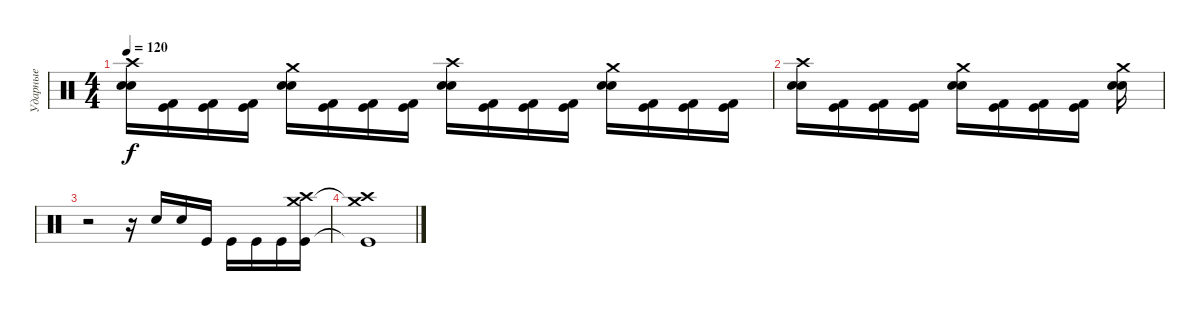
\track ("Ударные" "Ударные") {instrument percussion}
\staff {score}
\articulation defaults
\ts (4 4)
\tempo 120
\clef neutral
\ks c
("Crash high (hit)" "Snare (hit) 2" "Electric Snare (hit)").16{dy f} ("Kick (hit)" "Kick (hit) 2").16 ("Kick (hit)" "Kick (hit) 2").16 ("Kick (hit)" "Kick (hit) 2").16 ("Crash medium (hit)" "Snare (hit) 2" "Electric Snare (hit)").16 ("Kick (hit)" "Kick (hit) 2").16 ("Kick (hit)" "Kick (hit) 2").16 ("Kick (hit)" "Kick (hit) 2").16 ("Crash high (hit)" "Snare (hit) 2" "Electric Snare (hit)").16 ("Kick (hit)" "Kick (hit) 2").16 ("Kick (hit)" "Kick (hit) 2").16 ("Kick (hit)" "Kick (hit) 2").16 ("Crash medium (hit)" "Snare (hit) 2" "Electric Snare (hit)").16 ("Kick (hit)" "Kick (hit) 2").16 ("Kick (hit)" "Kick (hit) 2").16 ("Kick (hit)" "Kick (hit) 2").16 |
("Crash high (hit)" "Snare (hit) 2" "Electric Snare (hit)").16 ("Kick (hit)" "Kick (hit) 2").16 ("Kick (hit)" "Kick (hit) 2").16 ("Kick (hit)" "Kick (hit) 2").16 ("Crash medium (hit)" "Snare (hit) 2" "Electric Snare (hit)").16 ("Kick (hit)" "Kick (hit) 2").16 ("Kick (hit)" "Kick (hit) 2").16 ("Kick (hit)" "Kick (hit) 2").16 ("Crash medium (hit)" "Snare (hit) 2" "Electric Snare (hit)").16 |
r.2 r.16 "Snare (hit) 2".16 "Snare (hit) 2".16 "Kick (hit)".16 "Kick (hit)".16 "Kick (hit)".16 "Kick (hit)".16 ("Crash medium (hit)" "Kick (hit)" "Crash high (hit)").16 |
("Crash medium (hit)"{t} "Kick (hit)"{t} "Crash high (hit)").1
